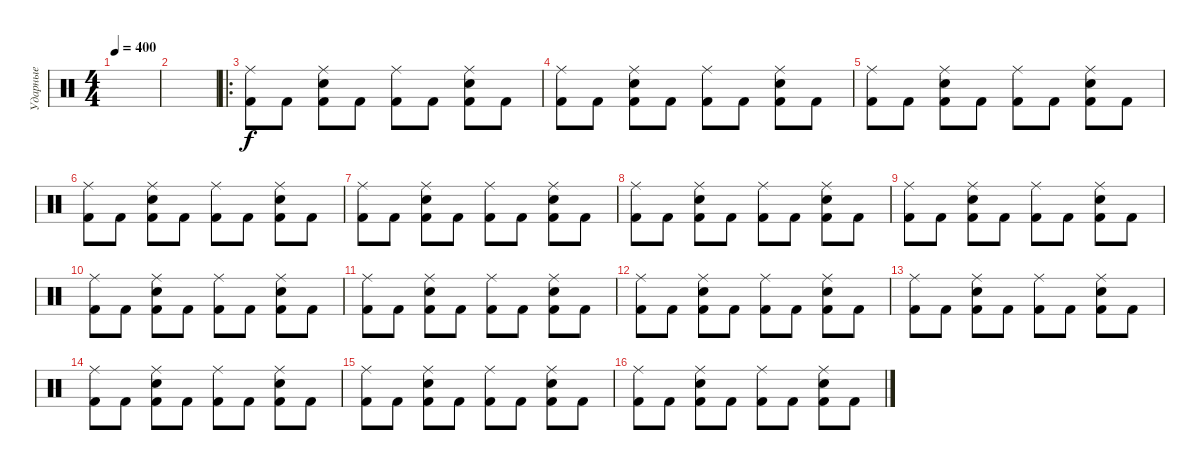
\track ("Ударные" "Ударные") {instrument percussion}
\staff {score}
\articulation defaults
\ts (4 4)
\tempo 400
\clef neutral
\ks c
|
|
\ro
("Ride (middle)" "Kick (hit) 2").8 "Kick (hit) 2".8 ("Ride (middle)" "Snare (hit) 2" "Kick (hit) 2").8 "Kick (hit) 2".8 ("Ride (middle)" "Kick (hit) 2").8 "Kick (hit) 2".8 ("Ride (middle)" "Snare (hit) 2" "Kick (hit) 2").8 "Kick (hit) 2".8 |
("Ride (middle)" "Kick (hit) 2").8 "Kick (hit) 2".8 ("Ride (middle)" "Snare (hit) 2" "Kick (hit) 2").8 "Kick (hit) 2".8 ("Ride (middle)" "Kick (hit) 2").8 "Kick (hit) 2".8 ("Ride (middle)" "Snare (hit) 2" "Kick (hit) 2").8 "Kick (hit) 2".8 |
("Ride (middle)" "Kick (hit) 2").8 "Kick (hit) 2".8 ("Ride (middle)" "Snare (hit) 2" "Kick (hit) 2").8 "Kick (hit) 2".8 ("Ride (middle)" "Kick (hit) 2").8 "Kick (hit) 2".8 ("Ride (middle)" "Snare (hit) 2" "Kick (hit) 2").8 "Kick (hit) 2".8 |
("Ride (middle)" "Kick (hit) 2").8 "Kick (hit) 2".8 ("Ride (middle)" "Snare (hit) 2" "Kick (hit) 2").8 "Kick (hit) 2".8 ("Ride (middle)" "Kick (hit) 2").8 "Kick (hit) 2".8 ("Ride (middle)" "Snare (hit) 2" "Kick (hit) 2").8 "Kick (hit) 2".8 |
("Ride (middle)" "Kick (hit) 2").8 "Kick (hit) 2".8 ("Ride (middle)" "Snare (hit) 2" "Kick (hit) 2").8 "Kick (hit) 2".8 ("Ride (middle)" "Kick (hit) 2").8 "Kick (hit) 2".8 ("Ride (middle)" "Snare (hit) 2" "Kick (hit) 2").8 "Kick (hit) 2".8 |
("Ride (middle)" "Kick (hit) 2").8 "Kick (hit) 2".8 ("Ride (middle)" "Snare (hit) 2" "Kick (hit) 2").8 "Kick (hit) 2".8 ("Ride (middle)" "Kick (hit) 2").8 "Kick (hit) 2".8 ("Ride (middle)" "Snare (hit) 2" "Kick (hit) 2").8 "Kick (hit) 2".8 |
("Ride (middle)" "Kick (hit) 2").8 "Kick (hit) 2".8 ("Ride (middle)" "Snare (hit) 2" "Kick (hit) 2").8 "Kick (hit) 2".8 ("Ride (middle)" "Kick (hit) 2").8 "Kick (hit) 2".8 ("Ride (middle)" "Snare (hit) 2" "Kick (hit) 2").8 "Kick (hit) 2".8 |
("Ride (middle)" "Kick (hit) 2").8 "Kick (hit) 2".8 ("Ride (middle)" "Snare (hit) 2" "Kick (hit) 2").8 "Kick (hit) 2".8 ("Ride (middle)" "Kick (hit) 2").8 "Kick (hit) 2".8 ("Ride (middle)" "Snare (hit) 2" "Kick (hit) 2").8 "Kick (hit) 2".8 |
("Ride (middle)" "Kick (hit) 2").8 "Kick (hit) 2".8 ("Ride (middle)" "Snare (hit) 2" "Kick (hit) 2").8 "Kick (hit) 2".8 ("Ride (middle)" "Kick (hit) 2").8 "Kick (hit) 2".8 ("Ride (middle)" "Snare (hit) 2" "Kick (hit) 2").8 "Kick (hit) 2".8 |
("Ride (middle)" "Kick (hit) 2").8 "Kick (hit) 2".8 ("Ride (middle)" "Snare (hit) 2" "Kick (hit) 2").8 "Kick (hit) 2".8 ("Ride (middle)" "Kick (hit) 2").8 "Kick (hit) 2".8 ("Ride (middle)" "Snare (hit) 2" "Kick (hit) 2").8 "Kick (hit) 2".8 |
("Ride (middle)" "Kick (hit) 2").8 "Kick (hit) 2".8 ("Ride (middle)" "Snare (hit) 2" "Kick (hit) 2").8 "Kick (hit) 2".8 ("Ride (middle)" "Kick (hit) 2").8 "Kick (hit) 2".8 ("Ride (middle)" "Snare (hit) 2" "Kick (hit) 2").8 "Kick (hit) 2".8 |
("Ride (middle)" "Kick (hit) 2").8 "Kick (hit) 2".8 ("Ride (middle)" "Snare (hit) 2" "Kick (hit) 2").8 "Kick (hit) 2".8 ("Ride (middle)" "Kick (hit) 2").8 "Kick (hit) 2".8 ("Ride (middle)" "Snare (hit) 2" "Kick (hit) 2").8 "Kick (hit) 2".8 |
("Ride (middle)" "Kick (hit) 2").8 "Kick (hit) 2".8 ("Ride (middle)" "Snare (hit) 2" "Kick (hit) 2").8 "Kick (hit) 2".8 ("Ride (middle)" "Kick (hit) 2").8 "Kick (hit) 2".8 ("Ride (middle)" "Snare (hit) 2" "Kick (hit) 2").8 "Kick (hit) 2".8 |
("Ride (middle)" "Kick (hit) 2").8 "Kick (hit) 2".8 ("Ride (middle)" "Snare (hit) 2" "Kick (hit) 2").8 "Kick (hit) 2".8 ("Ride (middle)" "Kick (hit) 2").8 "Kick (hit) 2".8 ("Ride (middle)" "Snare (hit) 2" "Kick (hit) 2").8 "Kick (hit) 2".8
